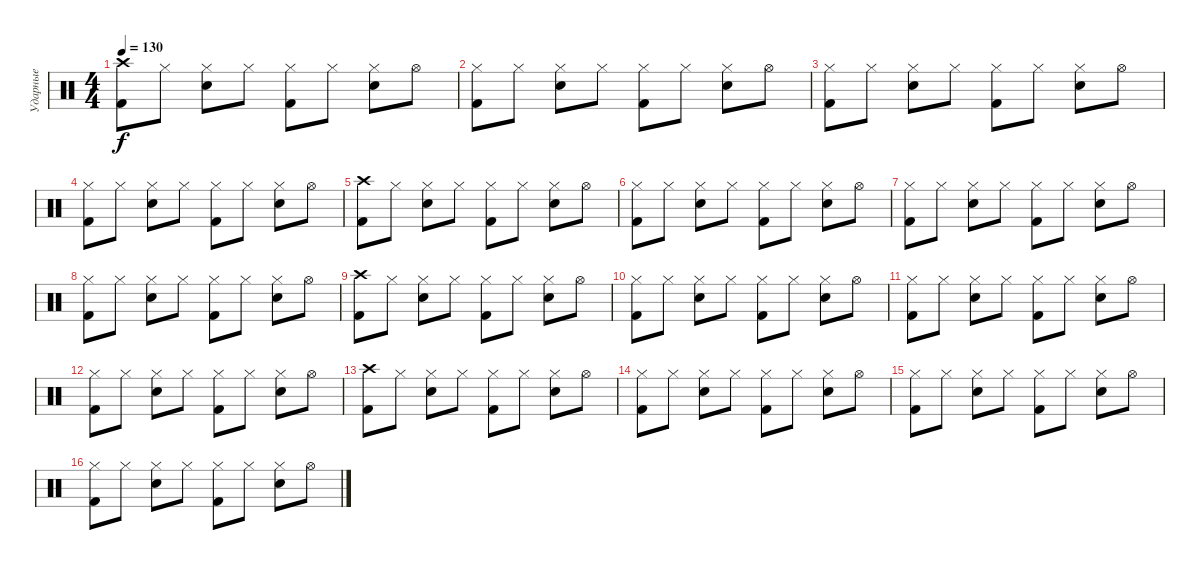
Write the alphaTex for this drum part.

\track ("Ударные" "Ударные") {instrument percussion}
\staff {score}
\articulation defaults
\ts (4 4)
\tempo 130
\clef neutral
\ks c
("Crash high (hit)" "Kick (hit) 2").8{dy f} "Hi-Hat (closed)".8 ("Hi-Hat (closed)" "Electric Snare (hit)").8 "Hi-Hat (closed)".8 ("Hi-Hat (closed)" "Kick (hit) 2").8 "Hi-Hat (closed)".8 ("Hi-Hat (closed)" "Electric Snare (hit)").8 "Hi-Hat (open)".8 |
("Hi-Hat (closed)" "Kick (hit) 2").8 "Hi-Hat (closed)".8 ("Hi-Hat (closed)" "Electric Snare (hit)").8 "Hi-Hat (closed)".8 ("Hi-Hat (closed)" "Kick (hit) 2").8 "Hi-Hat (closed)".8 ("Hi-Hat (closed)" "Electric Snare (hit)").8 "Hi-Hat (open)".8 |
("Hi-Hat (closed)" "Kick (hit) 2").8 "Hi-Hat (closed)".8 ("Hi-Hat (closed)" "Electric Snare (hit)").8 "Hi-Hat (closed)".8 ("Hi-Hat (closed)" "Kick (hit) 2").8 "Hi-Hat (closed)".8 ("Hi-Hat (closed)" "Electric Snare (hit)").8 "Hi-Hat (open)".8 |
("Hi-Hat (closed)" "Kick (hit) 2").8 "Hi-Hat (closed)".8 ("Hi-Hat (closed)" "Electric Snare (hit)").8 "Hi-Hat (closed)".8 ("Hi-Hat (closed)" "Kick (hit) 2").8 "Hi-Hat (closed)".8 ("Hi-Hat (closed)" "Electric Snare (hit)").8 "Hi-Hat (open)".8 |
("Crash high (hit)" "Kick (hit) 2").8 "Hi-Hat (closed)".8 ("Hi-Hat (closed)" "Electric Snare (hit)").8 "Hi-Hat (closed)".8 ("Hi-Hat (closed)" "Kick (hit) 2").8 "Hi-Hat (closed)".8 ("Hi-Hat (closed)" "Electric Snare (hit)").8 "Hi-Hat (open)".8 |
("Hi-Hat (closed)" "Kick (hit) 2").8 "Hi-Hat (closed)".8 ("Hi-Hat (closed)" "Electric Snare (hit)").8 "Hi-Hat (closed)".8 ("Hi-Hat (closed)" "Kick (hit) 2").8 "Hi-Hat (closed)".8 ("Hi-Hat (closed)" "Electric Snare (hit)").8 "Hi-Hat (open)".8 |
("Hi-Hat (closed)" "Kick (hit) 2").8 "Hi-Hat (closed)".8 ("Hi-Hat (closed)" "Electric Snare (hit)").8 "Hi-Hat (closed)".8 ("Hi-Hat (closed)" "Kick (hit) 2").8 "Hi-Hat (closed)".8 ("Hi-Hat (closed)" "Electric Snare (hit)").8 "Hi-Hat (open)".8 |
("Hi-Hat (closed)" "Kick (hit) 2").8 "Hi-Hat (closed)".8 ("Hi-Hat (closed)" "Electric Snare (hit)").8 "Hi-Hat (closed)".8 ("Hi-Hat (closed)" "Kick (hit) 2").8 "Hi-Hat (closed)".8 ("Hi-Hat (closed)" "Electric Snare (hit)").8 "Hi-Hat (open)".8 |
("Crash high (hit)" "Kick (hit) 2").8 "Hi-Hat (closed)".8 ("Hi-Hat (closed)" "Electric Snare (hit)").8 "Hi-Hat (closed)".8 ("Hi-Hat (closed)" "Kick (hit) 2").8 "Hi-Hat (closed)".8 ("Hi-Hat (closed)" "Electric Snare (hit)").8 "Hi-Hat (open)".8 |
("Hi-Hat (closed)" "Kick (hit) 2").8 "Hi-Hat (closed)".8 ("Hi-Hat (closed)" "Electric Snare (hit)").8 "Hi-Hat (closed)".8 ("Hi-Hat (closed)" "Kick (hit) 2").8 "Hi-Hat (closed)".8 ("Hi-Hat (closed)" "Electric Snare (hit)").8 "Hi-Hat (open)".8 |
("Hi-Hat (closed)" "Kick (hit) 2").8 "Hi-Hat (closed)".8 ("Hi-Hat (closed)" "Electric Snare (hit)").8 "Hi-Hat (closed)".8 ("Hi-Hat (closed)" "Kick (hit) 2").8 "Hi-Hat (closed)".8 ("Hi-Hat (closed)" "Electric Snare (hit)").8 "Hi-Hat (open)".8 |
("Hi-Hat (closed)" "Kick (hit) 2").8 "Hi-Hat (closed)".8 ("Hi-Hat (closed)" "Electric Snare (hit)").8 "Hi-Hat (closed)".8 ("Hi-Hat (closed)" "Kick (hit) 2").8 "Hi-Hat (closed)".8 ("Hi-Hat (closed)" "Electric Snare (hit)").8 "Hi-Hat (open)".8 |
("Crash high (hit)" "Kick (hit) 2").8 "Hi-Hat (closed)".8 ("Hi-Hat (closed)" "Electric Snare (hit)").8 "Hi-Hat (closed)".8 ("Hi-Hat (closed)" "Kick (hit) 2").8 "Hi-Hat (closed)".8 ("Hi-Hat (closed)" "Electric Snare (hit)").8 "Hi-Hat (open)".8 |
("Hi-Hat (closed)" "Kick (hit) 2").8 "Hi-Hat (closed)".8 ("Hi-Hat (closed)" "Electric Snare (hit)").8 "Hi-Hat (closed)".8 ("Hi-Hat (closed)" "Kick (hit) 2").8 "Hi-Hat (closed)".8 ("Hi-Hat (closed)" "Electric Snare (hit)").8 "Hi-Hat (open)".8 |
("Hi-Hat (closed)" "Kick (hit) 2").8 "Hi-Hat (closed)".8 ("Hi-Hat (closed)" "Electric Snare (hit)").8 "Hi-Hat (closed)".8 ("Hi-Hat (closed)" "Kick (hit) 2").8 "Hi-Hat (closed)".8 ("Hi-Hat (closed)" "Electric Snare (hit)").8 "Hi-Hat (open)".8 |
("Hi-Hat (closed)" "Kick (hit) 2").8 "Hi-Hat (closed)".8 ("Hi-Hat (closed)" "Electric Snare (hit)").8 "Hi-Hat (closed)".8 ("Hi-Hat (closed)" "Kick (hit) 2").8 "Hi-Hat (closed)".8 ("Hi-Hat (closed)" "Electric Snare (hit)").8 "Hi-Hat (open)".8
